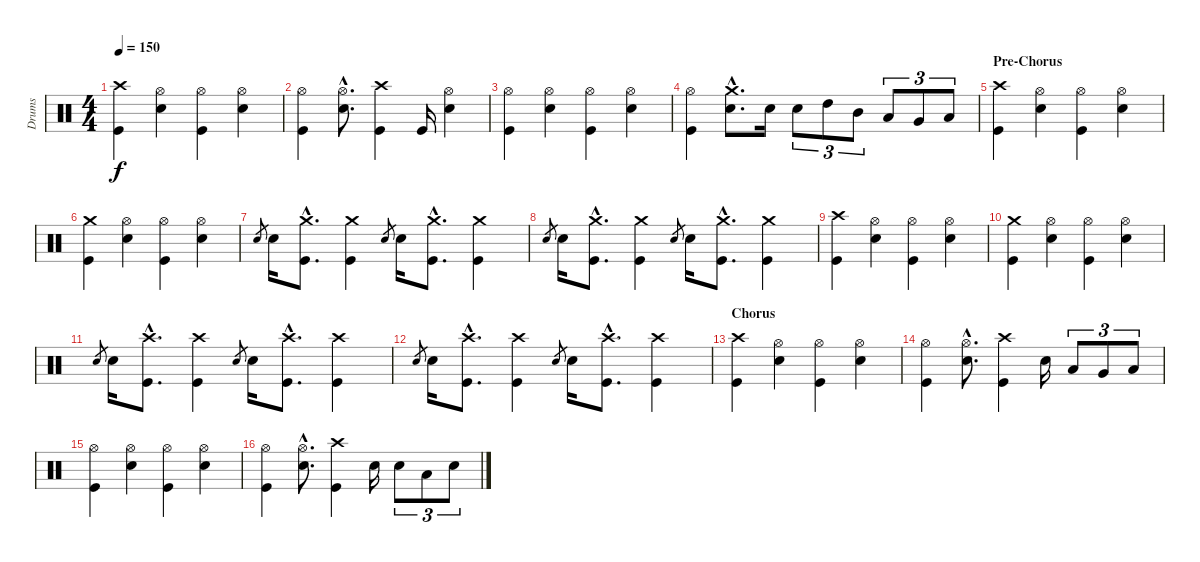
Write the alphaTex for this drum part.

\track ("Drums" "Drums") {instrument percussion}
\staff {score}
\articulation defaults
\ts (4 4)
\tempo 150
\clef neutral
\ks c
("Crash high (hit)" "Kick (hit)").4{dy f} ("Hi-Hat (open)" "Snare (hit) 2").4 ("Hi-Hat (open)" "Kick (hit)").4 ("Hi-Hat (open)" "Snare (hit) 2").4 |
("Hi-Hat (open)" "Kick (hit)").4 ("Hi-Hat (open)"{hac} "Snare (hit) 2"{hac}).8{d} ("Crash high (hit)" "Kick (hit)").4 "Kick (hit)".16 ("Hi-Hat (open)" "Snare (hit) 2").4 |
("Hi-Hat (open)" "Kick (hit)").4 ("Hi-Hat (open)" "Snare (hit) 2").4 ("Hi-Hat (open)" "Kick (hit)").4 ("Hi-Hat (open)" "Snare (hit) 2").4 |
("Hi-Hat (open)" "Kick (hit)").4 ("Crash medium (hit)"{hac} "Snare (hit) 2"{hac}).8{d} "Snare (hit) 2".16 "Snare (hit) 2".8{tu (3 2)} "High Tom (hit)".8{tu (3 2)} "Mid Tom (hit)".8{tu (3 2)} "Low Tom (hit)".8{tu (3 2)} "Very Low Tom (hit)".8{tu (3 2)} "Low Floor Tom (hit)".8{tu (3 2)} |
\section ("" "Pre-Chorus")
("Crash high (hit)" "Kick (hit)").4 ("Hi-Hat (open)" "Snare (hit) 2").4 ("Hi-Hat (open)" "Kick (hit)").4 ("Hi-Hat (open)" "Snare (hit) 2").4 |
("Crash medium (hit)" "Kick (hit)").4 ("Hi-Hat (open)" "Snare (hit) 2").4 ("Hi-Hat (open)" "Kick (hit)").4 ("Hi-Hat (open)" "Snare (hit) 2").4 |
"Snare (hit) 2".8{gr} "Snare (hit) 2".16 ("Crash medium (hit)"{hac} "Kick (hit)"{hac}).8{d} ("Crash medium (hit)" "Kick (hit)").4 "Snare (hit) 2".8{gr} "Snare (hit) 2".16 ("Crash medium (hit)"{hac} "Kick (hit)"{hac}).8{d} ("Crash medium (hit)" "Kick (hit)").4 |
"Snare (hit) 2".8{gr} "Snare (hit) 2".16 ("Crash medium (hit)"{hac} "Kick (hit)"{hac}).8{d} ("Crash medium (hit)" "Kick (hit)").4 "Snare (hit) 2".8{gr} "Snare (hit) 2".16 ("Crash medium (hit)"{hac} "Kick (hit)"{hac}).8{d} ("Crash medium (hit)" "Kick (hit)").4 |
("Crash high (hit)" "Kick (hit)").4 ("Hi-Hat (open)" "Snare (hit) 2").4 ("Hi-Hat (open)" "Kick (hit)").4 ("Hi-Hat (open)" "Snare (hit) 2").4 |
("Crash medium (hit)" "Kick (hit)").4 ("Hi-Hat (open)" "Snare (hit) 2").4 ("Hi-Hat (open)" "Kick (hit)").4 ("Hi-Hat (open)" "Snare (hit) 2").4 |
"Snare (hit) 2".8{gr} "Snare (hit) 2".16 ("Crash high (hit)"{hac} "Kick (hit)"{hac}).8{d} ("Crash high (hit)" "Kick (hit)").4 "Snare (hit) 2".8{gr} "Snare (hit) 2".16 ("Crash high (hit)"{hac} "Kick (hit)"{hac}).8{d} ("Crash high (hit)" "Kick (hit)").4 |
"Snare (hit) 2".8{gr} "Snare (hit) 2".16 ("Crash high (hit)"{hac} "Kick (hit)"{hac}).8{d} ("Crash high (hit)" "Kick (hit)").4 "Snare (hit) 2".8{gr} "Snare (hit) 2".16 ("Crash high (hit)"{hac} "Kick (hit)"{hac}).8{d} ("Crash high (hit)" "Kick (hit)").4 |
\section ("" "Chorus")
("Crash high (hit)" "Kick (hit)").4 ("Hi-Hat (open)" "Snare (hit) 2").4 ("Hi-Hat (open)" "Kick (hit)").4 ("Hi-Hat (open)" "Snare (hit) 2").4 |
("Hi-Hat (open)" "Kick (hit)").4 ("Hi-Hat (open)"{hac} "Snare (hit) 2"{hac}).8{d} ("Crash high (hit)" "Kick (hit)").4 "Snare (hit) 2".16 "Low Tom (hit)".8{tu (3 2)} "Very Low Tom (hit)".8{tu (3 2)} "Low Floor Tom (hit)".8{tu (3 2)} |
("Hi-Hat (open)" "Kick (hit)").4 ("Hi-Hat (open)" "Snare (hit) 2").4 ("Hi-Hat (open)" "Kick (hit)").4 ("Hi-Hat (open)" "Snare (hit) 2").4 |
("Hi-Hat (open)" "Kick (hit)").4 ("Hi-Hat (open)"{hac} "Snare (hit) 2"{hac}).8{d} ("Crash high (hit)" "Kick (hit)").4 "Snare (hit) 2".16 "Snare (hit) 2".8{tu (3 2)} "Low Tom (hit)".8{tu (3 2)} "Snare (hit) 2".8{tu (3 2)}
